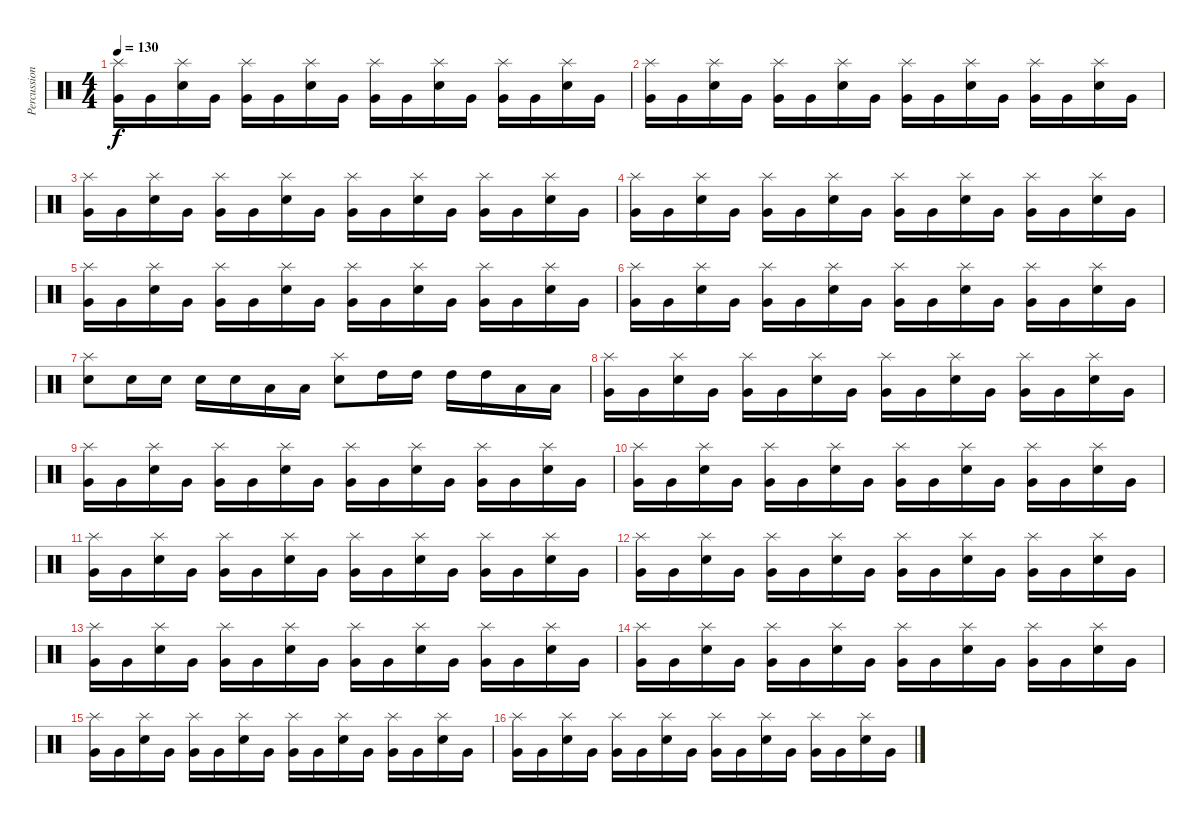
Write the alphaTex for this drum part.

\track ("Percussion" "Percussion") {instrument percussion}
\staff {score}
\articulation defaults
\ts (4 4)
\tempo 130
\clef neutral
\ks c
("Very Low Tom (hit)" "Splash (hit)").16{dy f} "Very Low Tom (hit)".16 ("Snare (hit) 2" "Splash (hit)").16 "Very Low Tom (hit)".16 ("Very Low Tom (hit)" "Splash (hit)").16 "Very Low Tom (hit)".16 ("Snare (hit) 2" "Splash (hit)").16 "Very Low Tom (hit)".16 ("Very Low Tom (hit)" "Splash (hit)").16 "Very Low Tom (hit)".16 ("Snare (hit) 2" "Splash (hit)").16 "Very Low Tom (hit)".16 ("Very Low Tom (hit)" "Splash (hit)").16 "Very Low Tom (hit)".16 ("Snare (hit) 2" "Splash (hit)").16 "Very Low Tom (hit)".16 |
("Very Low Tom (hit)" "Splash (hit)").16 "Very Low Tom (hit)".16 ("Snare (hit) 2" "Splash (hit)").16 "Very Low Tom (hit)".16 ("Very Low Tom (hit)" "Splash (hit)").16 "Very Low Tom (hit)".16 ("Snare (hit) 2" "Splash (hit)").16 "Very Low Tom (hit)".16 ("Very Low Tom (hit)" "Splash (hit)").16 "Very Low Tom (hit)".16 ("Snare (hit) 2" "Splash (hit)").16 "Very Low Tom (hit)".16 ("Very Low Tom (hit)" "Splash (hit)").16 "Very Low Tom (hit)".16 ("Snare (hit) 2" "Splash (hit)").16 "Very Low Tom (hit)".16 |
("Very Low Tom (hit)" "Splash (hit)").16 "Very Low Tom (hit)".16 ("Snare (hit) 2" "Splash (hit)").16 "Very Low Tom (hit)".16 ("Very Low Tom (hit)" "Splash (hit)").16 "Very Low Tom (hit)".16 ("Snare (hit) 2" "Splash (hit)").16 "Very Low Tom (hit)".16 ("Very Low Tom (hit)" "Splash (hit)").16 "Very Low Tom (hit)".16 ("Snare (hit) 2" "Splash (hit)").16 "Very Low Tom (hit)".16 ("Very Low Tom (hit)" "Splash (hit)").16 "Very Low Tom (hit)".16 ("Snare (hit) 2" "Splash (hit)").16 "Very Low Tom (hit)".16 |
("Very Low Tom (hit)" "Splash (hit)").16 "Very Low Tom (hit)".16 ("Snare (hit) 2" "Splash (hit)").16 "Very Low Tom (hit)".16 ("Very Low Tom (hit)" "Splash (hit)").16 "Very Low Tom (hit)".16 ("Snare (hit) 2" "Splash (hit)").16 "Very Low Tom (hit)".16 ("Very Low Tom (hit)" "Splash (hit)").16 "Very Low Tom (hit)".16 ("Snare (hit) 2" "Splash (hit)").16 "Very Low Tom (hit)".16 ("Very Low Tom (hit)" "Splash (hit)").16 "Very Low Tom (hit)".16 ("Snare (hit) 2" "Splash (hit)").16 "Very Low Tom (hit)".16 |
("Very Low Tom (hit)" "Splash (hit)").16 "Very Low Tom (hit)".16 ("Snare (hit) 2" "Splash (hit)").16 "Very Low Tom (hit)".16 ("Very Low Tom (hit)" "Splash (hit)").16 "Very Low Tom (hit)".16 ("Snare (hit) 2" "Splash (hit)").16 "Very Low Tom (hit)".16 ("Very Low Tom (hit)" "Splash (hit)").16 "Very Low Tom (hit)".16 ("Snare (hit) 2" "Splash (hit)").16 "Very Low Tom (hit)".16 ("Very Low Tom (hit)" "Splash (hit)").16 "Very Low Tom (hit)".16 ("Snare (hit) 2" "Splash (hit)").16 "Very Low Tom (hit)".16 |
("Very Low Tom (hit)" "Splash (hit)").16 "Very Low Tom (hit)".16 ("Snare (hit) 2" "Splash (hit)").16 "Very Low Tom (hit)".16 ("Very Low Tom (hit)" "Splash (hit)").16 "Very Low Tom (hit)".16 ("Snare (hit) 2" "Splash (hit)").16 "Very Low Tom (hit)".16 ("Very Low Tom (hit)" "Splash (hit)").16 "Very Low Tom (hit)".16 ("Snare (hit) 2" "Splash (hit)").16 "Very Low Tom (hit)".16 ("Very Low Tom (hit)" "Splash (hit)").16 "Very Low Tom (hit)".16 ("Snare (hit) 2" "Splash (hit)").16 "Very Low Tom (hit)".16 |
("Snare (hit) 2" "Splash (hit)").8 "Snare (hit) 2".16 "Snare (hit) 2".16 "Snare (hit) 2".16 "Snare (hit) 2".16 "Low Tom (hit)".16 "Low Tom (hit)".16 ("Snare (hit) 2" "Splash (hit)").8 "High Tom (hit)".16 "High Tom (hit)".16 "High Tom (hit)".16 "High Tom (hit)".16 "Low Tom (hit)".16 "Low Tom (hit)".16 |
("Very Low Tom (hit)" "Splash (hit)").16 "Very Low Tom (hit)".16 ("Snare (hit) 2" "Splash (hit)").16 "Very Low Tom (hit)".16 ("Very Low Tom (hit)" "Splash (hit)").16 "Very Low Tom (hit)".16 ("Snare (hit) 2" "Splash (hit)").16 "Very Low Tom (hit)".16 ("Very Low Tom (hit)" "Splash (hit)").16 "Very Low Tom (hit)".16 ("Snare (hit) 2" "Splash (hit)").16 "Very Low Tom (hit)".16 ("Very Low Tom (hit)" "Splash (hit)").16 "Very Low Tom (hit)".16 ("Snare (hit) 2" "Splash (hit)").16 "Very Low Tom (hit)".16 |
("Very Low Tom (hit)" "Splash (hit)").16 "Very Low Tom (hit)".16 ("Snare (hit) 2" "Splash (hit)").16 "Very Low Tom (hit)".16 ("Very Low Tom (hit)" "Splash (hit)").16 "Very Low Tom (hit)".16 ("Snare (hit) 2" "Splash (hit)").16 "Very Low Tom (hit)".16 ("Very Low Tom (hit)" "Splash (hit)").16 "Very Low Tom (hit)".16 ("Snare (hit) 2" "Splash (hit)").16 "Very Low Tom (hit)".16 ("Very Low Tom (hit)" "Splash (hit)").16 "Very Low Tom (hit)".16 ("Snare (hit) 2" "Splash (hit)").16 "Very Low Tom (hit)".16 |
("Very Low Tom (hit)" "Splash (hit)").16 "Very Low Tom (hit)".16 ("Snare (hit) 2" "Splash (hit)").16 "Very Low Tom (hit)".16 ("Very Low Tom (hit)" "Splash (hit)").16 "Very Low Tom (hit)".16 ("Snare (hit) 2" "Splash (hit)").16 "Very Low Tom (hit)".16 ("Very Low Tom (hit)" "Splash (hit)").16 "Very Low Tom (hit)".16 ("Snare (hit) 2" "Splash (hit)").16 "Very Low Tom (hit)".16 ("Very Low Tom (hit)" "Splash (hit)").16 "Very Low Tom (hit)".16 ("Snare (hit) 2" "Splash (hit)").16 "Very Low Tom (hit)".16 |
("Very Low Tom (hit)" "Splash (hit)").16 "Very Low Tom (hit)".16 ("Snare (hit) 2" "Splash (hit)").16 "Very Low Tom (hit)".16 ("Very Low Tom (hit)" "Splash (hit)").16 "Very Low Tom (hit)".16 ("Snare (hit) 2" "Splash (hit)").16 "Very Low Tom (hit)".16 ("Very Low Tom (hit)" "Splash (hit)").16 "Very Low Tom (hit)".16 ("Snare (hit) 2" "Splash (hit)").16 "Very Low Tom (hit)".16 ("Very Low Tom (hit)" "Splash (hit)").16 "Very Low Tom (hit)".16 ("Snare (hit) 2" "Splash (hit)").16 "Very Low Tom (hit)".16 |
("Very Low Tom (hit)" "Splash (hit)").16 "Very Low Tom (hit)".16 ("Snare (hit) 2" "Splash (hit)").16 "Very Low Tom (hit)".16 ("Very Low Tom (hit)" "Splash (hit)").16 "Very Low Tom (hit)".16 ("Snare (hit) 2" "Splash (hit)").16 "Very Low Tom (hit)".16 ("Very Low Tom (hit)" "Splash (hit)").16 "Very Low Tom (hit)".16 ("Snare (hit) 2" "Splash (hit)").16 "Very Low Tom (hit)".16 ("Very Low Tom (hit)" "Splash (hit)").16 "Very Low Tom (hit)".16 ("Snare (hit) 2" "Splash (hit)").16 "Very Low Tom (hit)".16 |
("Very Low Tom (hit)" "Splash (hit)").16 "Very Low Tom (hit)".16 ("Snare (hit) 2" "Splash (hit)").16 "Very Low Tom (hit)".16 ("Very Low Tom (hit)" "Splash (hit)").16 "Very Low Tom (hit)".16 ("Snare (hit) 2" "Splash (hit)").16 "Very Low Tom (hit)".16 ("Very Low Tom (hit)" "Splash (hit)").16 "Very Low Tom (hit)".16 ("Snare (hit) 2" "Splash (hit)").16 "Very Low Tom (hit)".16 ("Very Low Tom (hit)" "Splash (hit)").16 "Very Low Tom (hit)".16 ("Snare (hit) 2" "Splash (hit)").16 "Very Low Tom (hit)".16 |
("Very Low Tom (hit)" "Splash (hit)").16 "Very Low Tom (hit)".16 ("Snare (hit) 2" "Splash (hit)").16 "Very Low Tom (hit)".16 ("Very Low Tom (hit)" "Splash (hit)").16 "Very Low Tom (hit)".16 ("Snare (hit) 2" "Splash (hit)").16 "Very Low Tom (hit)".16 ("Very Low Tom (hit)" "Splash (hit)").16 "Very Low Tom (hit)".16 ("Snare (hit) 2" "Splash (hit)").16 "Very Low Tom (hit)".16 ("Very Low Tom (hit)" "Splash (hit)").16 "Very Low Tom (hit)".16 ("Snare (hit) 2" "Splash (hit)").16 "Very Low Tom (hit)".16 |
("Very Low Tom (hit)" "Splash (hit)").16 "Very Low Tom (hit)".16 ("Snare (hit) 2" "Splash (hit)").16 "Very Low Tom (hit)".16 ("Very Low Tom (hit)" "Splash (hit)").16 "Very Low Tom (hit)".16 ("Snare (hit) 2" "Splash (hit)").16 "Very Low Tom (hit)".16 ("Very Low Tom (hit)" "Splash (hit)").16 "Very Low Tom (hit)".16 ("Snare (hit) 2" "Splash (hit)").16 "Very Low Tom (hit)".16 ("Very Low Tom (hit)" "Splash (hit)").16 "Very Low Tom (hit)".16 ("Snare (hit) 2" "Splash (hit)").16 "Very Low Tom (hit)".16 |
("Very Low Tom (hit)" "Splash (hit)").16 "Very Low Tom (hit)".16 ("Snare (hit) 2" "Splash (hit)").16 "Very Low Tom (hit)".16 ("Very Low Tom (hit)" "Splash (hit)").16 "Very Low Tom (hit)".16 ("Snare (hit) 2" "Splash (hit)").16 "Very Low Tom (hit)".16 ("Very Low Tom (hit)" "Splash (hit)").16 "Very Low Tom (hit)".16 ("Snare (hit) 2" "Splash (hit)").16 "Very Low Tom (hit)".16 ("Very Low Tom (hit)" "Splash (hit)").16 "Very Low Tom (hit)".16 ("Snare (hit) 2" "Splash (hit)").16 "Very Low Tom (hit)".16
